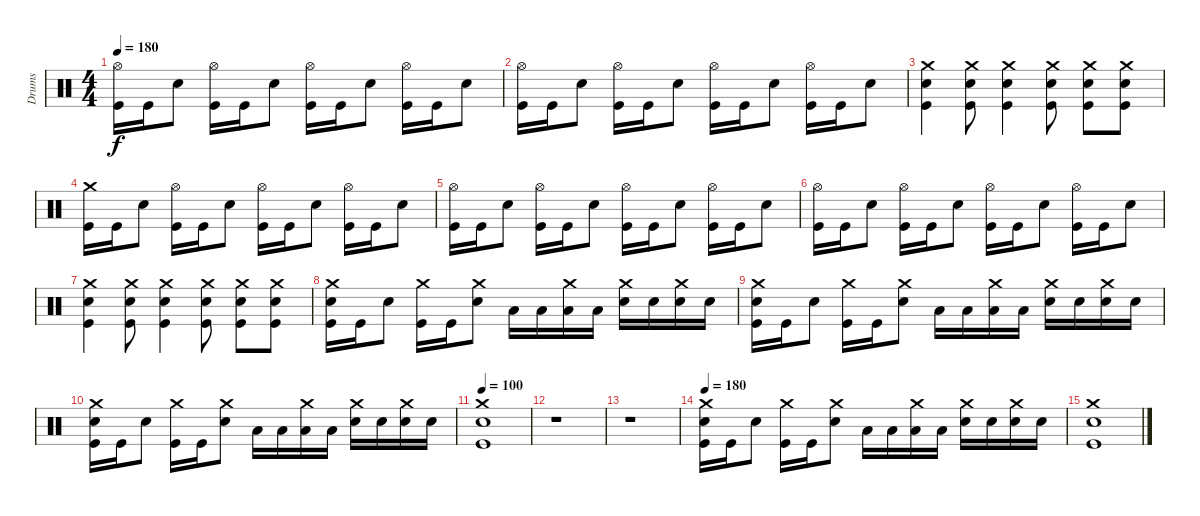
\track ("Drums" "Drums") {instrument percussion}
\staff {score}
\articulation defaults
\ts (4 4)
\tempo 180
\clef neutral
\ks c
("Hi-Hat (open)" "Kick (hit)").16{dy f} "Kick (hit)".16 "Snare (hit) 2".8 ("Hi-Hat (open)" "Kick (hit)").16 "Kick (hit)".16 "Snare (hit) 2".8 ("Hi-Hat (open)" "Kick (hit)").16 "Kick (hit)".16 "Snare (hit) 2".8 ("Hi-Hat (open)" "Kick (hit)").16 "Kick (hit)".16 "Snare (hit) 2".8 |
("Hi-Hat (open)" "Kick (hit)").16 "Kick (hit)".16 "Snare (hit) 2".8 ("Hi-Hat (open)" "Kick (hit)").16 "Kick (hit)".16 "Snare (hit) 2".8 ("Hi-Hat (open)" "Kick (hit)").16 "Kick (hit)".16 "Snare (hit) 2".8 ("Hi-Hat (open)" "Kick (hit)").16 "Kick (hit)".16 "Snare (hit) 2".8 |
("Crash medium (hit)" "Snare (hit) 2" "Kick (hit)").4 ("Crash medium (hit)" "Snare (hit) 2" "Kick (hit)").8 ("Crash medium (hit)" "Snare (hit) 2" "Kick (hit)").4 ("Crash medium (hit)" "Snare (hit) 2" "Kick (hit)").8 ("Crash medium (hit)" "Snare (hit) 2" "Kick (hit)").8 ("Crash medium (hit)" "Snare (hit) 2" "Kick (hit)").8 |
("Crash medium (hit)" "Kick (hit)").16 "Kick (hit)".16 "Snare (hit) 2".8 ("Hi-Hat (open)" "Kick (hit)").16 "Kick (hit)".16 "Snare (hit) 2".8 ("Hi-Hat (open)" "Kick (hit)").16 "Kick (hit)".16 "Snare (hit) 2".8 ("Hi-Hat (open)" "Kick (hit)").16 "Kick (hit)".16 "Snare (hit) 2".8 |
("Hi-Hat (open)" "Kick (hit)").16 "Kick (hit)".16 "Snare (hit) 2".8 ("Hi-Hat (open)" "Kick (hit)").16 "Kick (hit)".16 "Snare (hit) 2".8 ("Hi-Hat (open)" "Kick (hit)").16 "Kick (hit)".16 "Snare (hit) 2".8 ("Hi-Hat (open)" "Kick (hit)").16 "Kick (hit)".16 "Snare (hit) 2".8 |
("Hi-Hat (open)" "Kick (hit)").16 "Kick (hit)".16 "Snare (hit) 2".8 ("Hi-Hat (open)" "Kick (hit)").16 "Kick (hit)".16 "Snare (hit) 2".8 ("Hi-Hat (open)" "Kick (hit)").16 "Kick (hit)".16 "Snare (hit) 2".8 ("Hi-Hat (open)" "Kick (hit)").16 "Kick (hit)".16 "Snare (hit) 2".8 |
("Crash medium (hit)" "Snare (hit) 2" "Kick (hit)").4 ("Crash medium (hit)" "Snare (hit) 2" "Kick (hit)").8 ("Crash medium (hit)" "Snare (hit) 2" "Kick (hit)").4 ("Crash medium (hit)" "Snare (hit) 2" "Kick (hit)").8 ("Crash medium (hit)" "Snare (hit) 2" "Kick (hit)").8 ("Crash medium (hit)" "Snare (hit) 2" "Kick (hit)").8 |
("Crash medium (hit)" "Snare (hit) 2" "Kick (hit)").16 "Kick (hit)".16 "Snare (hit) 2".8 ("Crash medium (hit)" "Kick (hit)").16 "Kick (hit)".16 ("Crash medium (hit)" "Snare (hit) 2").8 "Low Tom (hit)".16 "Low Tom (hit)".16 ("Crash medium (hit)" "Low Tom (hit)").16 "Low Tom (hit)".16 ("Crash medium (hit)" "Snare (hit) 2").16 "Snare (hit) 2".16 ("Crash medium (hit)" "Snare (hit) 2").16 "Snare (hit) 2".16 |
("Crash medium (hit)" "Snare (hit) 2" "Kick (hit)").16 "Kick (hit)".16 "Snare (hit) 2".8 ("Crash medium (hit)" "Kick (hit)").16 "Kick (hit)".16 ("Crash medium (hit)" "Snare (hit) 2").8 "Low Tom (hit)".16 "Low Tom (hit)".16 ("Crash medium (hit)" "Low Tom (hit)").16 "Low Tom (hit)".16 ("Crash medium (hit)" "Snare (hit) 2").16 "Snare (hit) 2".16 ("Crash medium (hit)" "Snare (hit) 2").16 "Snare (hit) 2".16 |
("Crash medium (hit)" "Snare (hit) 2" "Kick (hit)").16 "Kick (hit)".16 "Snare (hit) 2".8 ("Crash medium (hit)" "Kick (hit)").16 "Kick (hit)".16 ("Crash medium (hit)" "Snare (hit) 2").8 "Low Tom (hit)".16 "Low Tom (hit)".16 ("Crash medium (hit)" "Low Tom (hit)").16 "Low Tom (hit)".16 ("Crash medium (hit)" "Snare (hit) 2").16 "Snare (hit) 2".16 ("Crash medium (hit)" "Snare (hit) 2").16 "Snare (hit) 2".16 |
\tempo 100
("Crash medium (hit)" "Snare (hit) 2" "Kick (hit)").1 |
r.1 |
r.1 |
\tempo 180
("Crash medium (hit)" "Snare (hit) 2" "Kick (hit)").16 "Kick (hit)".16 "Snare (hit) 2".8 ("Crash medium (hit)" "Kick (hit)").16 "Kick (hit)".16 ("Crash medium (hit)" "Snare (hit) 2").8 "Low Tom (hit)".16 "Low Tom (hit)".16 ("Crash medium (hit)" "Low Tom (hit)").16 "Low Tom (hit)".16 ("Crash medium (hit)" "Snare (hit) 2").16 "Snare (hit) 2".16 ("Crash medium (hit)" "Snare (hit) 2").16 "Snare (hit) 2".16 |
("Crash medium (hit)" "Snare (hit) 2" "Kick (hit)").1
